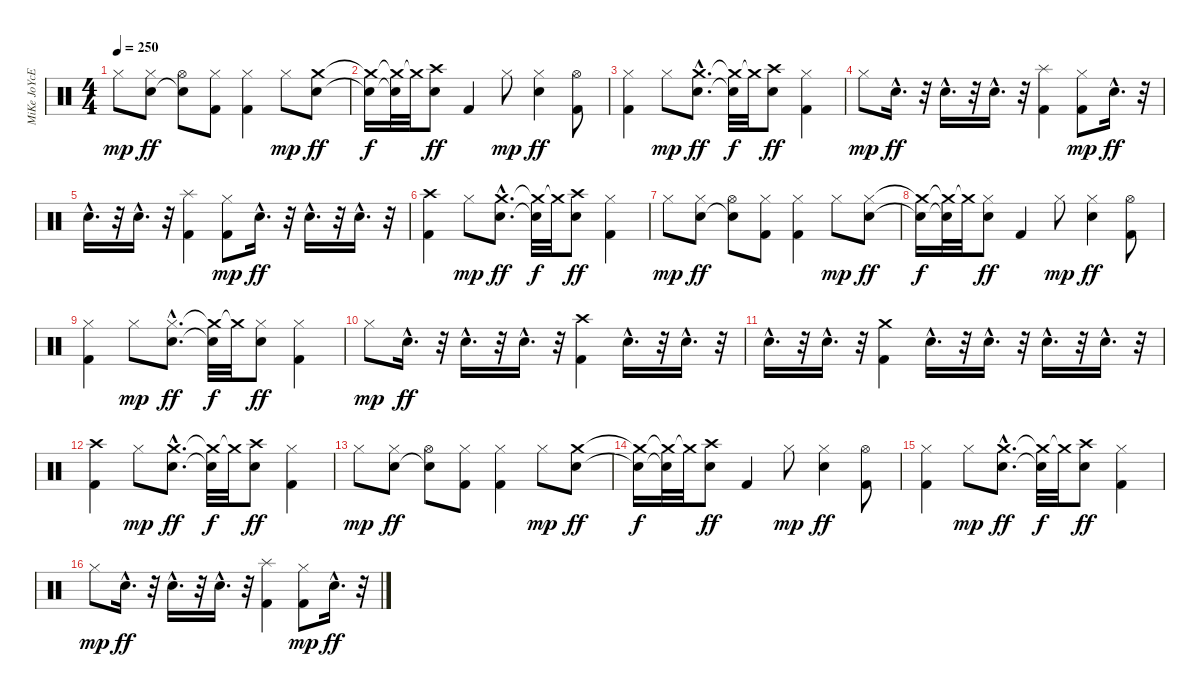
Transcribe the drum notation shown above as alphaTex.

\track ("MiKe JoYcE" "MiKe JoYcE") {instrument percussion}
\staff {score}
\articulation defaults
\ts (4 4)
\tempo 250
\clef neutral
\ks c "Hi-Hat (closed)".8{dy mp}
("Hi-Hat (closed)" "Electric Snare (hit)").8{dy ff} ("Hi-Hat (open)" "Electric Snare (hit)"{t}).8 ("Hi-Hat (closed)" "Kick (hit) 2").8 ("Hi-Hat (closed)" "Kick (hit) 2").4 "Hi-Hat (closed)".8{dy mp} ("Crash medium (hit)" "Electric Snare (hit)").8{dy ff} |
("Crash medium (hit)"{t} "Electric Snare (hit)"{t}).16{dy f} ("Crash medium (hit)"{t} "Electric Snare (hit)"{t}).32 "Crash medium (hit)"{t}.32 ("Crash high (hit)" "Electric Snare (hit)").8{dy ff} "Kick (hit) 2".4 "Hi-Hat (closed)".8{dy mp} ("Hi-Hat (closed)" "Electric Snare (hit)").4{dy ff} ("Hi-Hat (open)" "Kick (hit) 2").8 |
("Hi-Hat (closed)" "Kick (hit) 2").4 "Hi-Hat (closed)".8{dy mp} ("Crash medium (hit)"{hac} "Electric Snare (hit)"{hac}).8{d dy ff} ("Crash medium (hit)"{t} "Electric Snare (hit)"{t}).32{dy f} "Crash medium (hit)"{t}.32 ("Crash high (hit)" "Electric Snare (hit)").8{dy ff} ("Hi-Hat (closed)" "Kick (hit) 2").4 |
"Hi-Hat (closed)".8{dy mp} "Electric Snare (hit)"{hac}.16{d dy ff} r.32 "Electric Snare (hit)"{hac}.16{d} r.32 "Electric Snare (hit)"{hac}.16{d} r.32 ("Splash (hit)" "Kick (hit) 2").4 ("Hi-Hat (closed)" "Kick (hit) 2").8{dy mp} "Electric Snare (hit)"{hac}.16{d dy ff} r.32 |
"Electric Snare (hit)"{hac}.16{d} r.32 "Electric Snare (hit)"{hac}.16{d} r.32 ("Splash (hit)" "Kick (hit) 2").4 ("Hi-Hat (closed)" "Kick (hit) 2").8{dy mp} "Electric Snare (hit)"{hac}.16{d dy ff} r.32 "Electric Snare (hit)"{hac}.16{d} r.32 "Electric Snare (hit)"{hac}.16{d} r.32 |
("Crash high (hit)" "Kick (hit) 2").4 "Hi-Hat (closed)".8{dy mp} ("Crash medium (hit)"{hac} "Electric Snare (hit)"{hac}).8{d dy ff} ("Crash medium (hit)"{t} "Electric Snare (hit)"{t}).32{dy f} "Crash medium (hit)"{t}.32 ("Crash high (hit)" "Electric Snare (hit)").8{dy ff} ("Hi-Hat (closed)" "Kick (hit) 2").4 |
"Hi-Hat (closed)".8{dy mp} ("Hi-Hat (closed)" "Electric Snare (hit)").8{dy ff} ("Hi-Hat (open)" "Electric Snare (hit)"{t}).8 ("Hi-Hat (closed)" "Kick (hit) 2").8 ("Hi-Hat (closed)" "Kick (hit) 2").4 "Hi-Hat (closed)".8{dy mp} ("Hi-Hat (closed)" "Electric Snare (hit)").8{dy ff} |
("Crash medium (hit)"{t} "Electric Snare (hit)"{t}).16{dy f} ("Crash medium (hit)"{t} "Electric Snare (hit)"{t}).32 "Crash medium (hit)"{t}.32 ("Hi-Hat (closed)" "Electric Snare (hit)").8{dy ff} "Kick (hit) 2".4 "Hi-Hat (closed)".8{dy mp} ("Hi-Hat (closed)" "Electric Snare (hit)").4{dy ff} ("Hi-Hat (open)" "Kick (hit) 2").8 |
("Hi-Hat (closed)" "Kick (hit) 2").4 "Hi-Hat (closed)".8{dy mp} ("Hi-Hat (closed)"{hac} "Electric Snare (hit)"{hac}).8{d dy ff} ("Crash medium (hit)"{t} "Electric Snare (hit)"{t}).32{dy f} "Crash medium (hit)"{t}.32 ("Hi-Hat (closed)" "Electric Snare (hit)").8{dy ff} ("Hi-Hat (closed)" "Kick (hit) 2").4 |
"Hi-Hat (closed)".8{dy mp} "Electric Snare (hit)"{hac}.16{d dy ff} r.32 "Electric Snare (hit)"{hac}.16{d} r.32 "Electric Snare (hit)"{hac}.16{d} r.32 ("Crash high (hit)" "Kick (hit) 2").4 "Electric Snare (hit)"{hac}.16{d} r.32 "Electric Snare (hit)"{hac}.16{d} r.32 |
"Electric Snare (hit)"{hac}.16{d} r.32 "Electric Snare (hit)"{hac}.16{d} r.32 ("Crash medium (hit)" "Kick (hit) 2").4 "Electric Snare (hit)"{hac}.16{d} r.32 "Electric Snare (hit)"{hac}.16{d} r.32 "Electric Snare (hit)"{hac}.16{d} r.32 "Electric Snare (hit)"{hac}.16{d} r.32 |
("Crash high (hit)" "Kick (hit) 2").4 "Hi-Hat (closed)".8{dy mp} ("Crash medium (hit)"{hac} "Electric Snare (hit)"{hac}).8{d dy ff} ("Crash medium (hit)"{t} "Electric Snare (hit)"{t}).32{dy f} "Crash medium (hit)"{t}.32 ("Crash high (hit)" "Electric Snare (hit)").8{dy ff} ("Hi-Hat (closed)" "Kick (hit) 2").4 |
"Hi-Hat (closed)".8{dy mp} ("Hi-Hat (closed)" "Electric Snare (hit)").8{dy ff} ("Hi-Hat (open)" "Electric Snare (hit)"{t}).8 ("Hi-Hat (closed)" "Kick (hit) 2").8 ("Hi-Hat (closed)" "Kick (hit) 2").4 "Hi-Hat (closed)".8{dy mp} ("Crash medium (hit)" "Electric Snare (hit)").8{dy ff} |
("Crash medium (hit)"{t} "Electric Snare (hit)"{t}).16{dy f} ("Crash medium (hit)"{t} "Electric Snare (hit)"{t}).32 "Crash medium (hit)"{t}.32 ("Crash high (hit)" "Electric Snare (hit)").8{dy ff} "Kick (hit) 2".4 "Hi-Hat (closed)".8{dy mp} ("Hi-Hat (closed)" "Electric Snare (hit)").4{dy ff} ("Hi-Hat (open)" "Kick (hit) 2").8 |
("Hi-Hat (closed)" "Kick (hit) 2").4 "Hi-Hat (closed)".8{dy mp} ("Crash medium (hit)"{hac} "Electric Snare (hit)"{hac}).8{d dy ff} ("Crash medium (hit)"{t} "Electric Snare (hit)"{t}).32{dy f} "Crash medium (hit)"{t}.32 ("Crash high (hit)" "Electric Snare (hit)").8{dy ff} ("Hi-Hat (closed)" "Kick (hit) 2").4 |
"Hi-Hat (closed)".8{dy mp} "Electric Snare (hit)"{hac}.16{d dy ff} r.32 "Electric Snare (hit)"{hac}.16{d} r.32 "Electric Snare (hit)"{hac}.16{d} r.32 ("Splash (hit)" "Kick (hit) 2").4 ("Hi-Hat (closed)" "Kick (hit) 2").8{dy mp} "Electric Snare (hit)"{hac}.16{d dy ff} r.32
